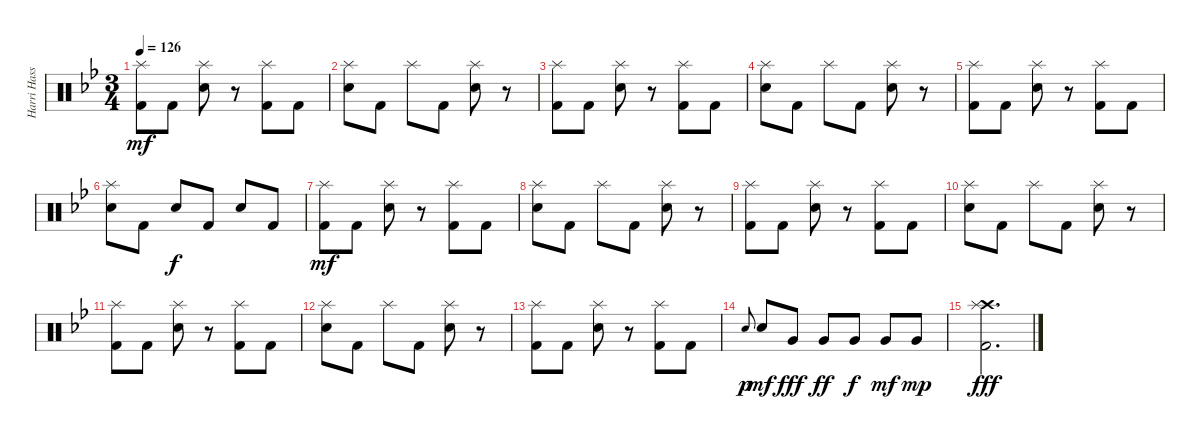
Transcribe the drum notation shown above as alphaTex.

\track ("Harri Hassin (drums)" "Harri Hass") {instrument percussion}
\staff {score}
\articulation defaults
\ts (3 4)
\tempo 126
\clef neutral
\ks bb
("Splash (hit)" "Kick (hit) 2").8{dy mf} "Kick (hit) 2".8 ("Splash (hit)" "Electric Snare (hit)").8 r.8 ("Splash (hit)" "Kick (hit) 2").8 "Kick (hit) 2".8 |
("Splash (hit)" "Electric Snare (hit)").8 "Kick (hit) 2".8 "Splash (hit)".8 "Kick (hit) 2".8 ("Splash (hit)" "Electric Snare (hit)").8 r.8 |
("Splash (hit)" "Kick (hit) 2").8 "Kick (hit) 2".8 ("Splash (hit)" "Electric Snare (hit)").8 r.8 ("Splash (hit)" "Kick (hit) 2").8 "Kick (hit) 2".8 |
("Splash (hit)" "Electric Snare (hit)").8 "Kick (hit) 2".8 "Splash (hit)".8 "Kick (hit) 2".8 ("Splash (hit)" "Electric Snare (hit)").8 r.8 |
("Splash (hit)" "Kick (hit) 2").8 "Kick (hit) 2".8 ("Splash (hit)" "Electric Snare (hit)").8 r.8 ("Splash (hit)" "Kick (hit) 2").8 "Kick (hit) 2".8 |
("Splash (hit)" "Electric Snare (hit)").8 "Kick (hit) 2".8 "Electric Snare (hit)".8{dy f} "Kick (hit) 2".8 "Electric Snare (hit)".8 "Kick (hit) 2".8 |
("Splash (hit)" "Kick (hit) 2").8{dy mf} "Kick (hit) 2".8 ("Splash (hit)" "Electric Snare (hit)").8 r.8 ("Splash (hit)" "Kick (hit) 2").8 "Kick (hit) 2".8 |
("Splash (hit)" "Electric Snare (hit)").8 "Kick (hit) 2".8 "Splash (hit)".8 "Kick (hit) 2".8 ("Splash (hit)" "Electric Snare (hit)").8 r.8 |
("Splash (hit)" "Kick (hit) 2").8 "Kick (hit) 2".8 ("Splash (hit)" "Electric Snare (hit)").8 r.8 ("Splash (hit)" "Kick (hit) 2").8 "Kick (hit) 2".8 |
("Splash (hit)" "Electric Snare (hit)").8 "Kick (hit) 2".8 "Splash (hit)".8 "Kick (hit) 2".8 ("Splash (hit)" "Electric Snare (hit)").8 r.8 |
("Splash (hit)" "Kick (hit) 2").8 "Kick (hit) 2".8 ("Splash (hit)" "Electric Snare (hit)").8 r.8 ("Splash (hit)" "Kick (hit) 2").8 "Kick (hit) 2".8 |
("Splash (hit)" "Electric Snare (hit)").8 "Kick (hit) 2".8 "Splash (hit)".8 "Kick (hit) 2".8 ("Splash (hit)" "Electric Snare (hit)").8 r.8 |
("Splash (hit)" "Kick (hit) 2").8 "Kick (hit) 2".8 ("Splash (hit)" "Electric Snare (hit)").8 r.8 ("Splash (hit)" "Kick (hit) 2").8 "Kick (hit) 2".8 |
"Electric Snare (hit)".8{gr onbeat dy p} "Electric Snare (hit)".8{dy mf} "Very Low Tom (hit)".8{dy fff} "Very Low Tom (hit)".8{dy ff} "Very Low Tom (hit)".8{dy f} "Very Low Tom (hit)".8{dy mf} "Very Low Tom (hit)".8{dy mp} |
("Crash high (hit)" "Splash (hit)" "Kick (hit) 2").2{d bd 30 dy fff}
